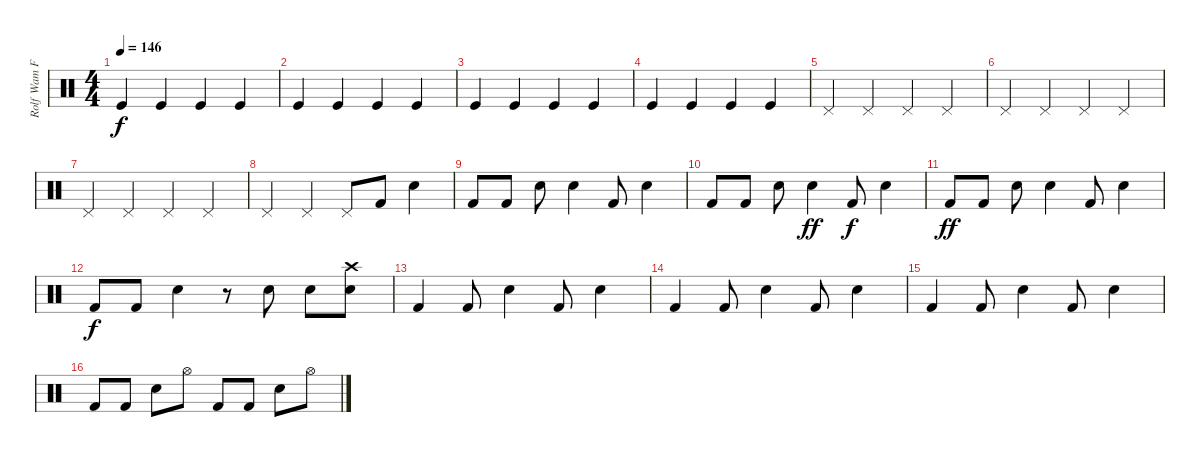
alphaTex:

\track ("Rolf Wam Fjell" "Rolf Wam F") {instrument percussion}
\staff {score}
\articulation defaults
\ts (4 4)
\tempo 146
\clef neutral
\ks c "Kick (hit)".4{dy f} "Kick (hit)".4 "Kick (hit)".4 "Kick (hit)".4
|
"Kick (hit)".4 "Kick (hit)".4 "Kick (hit)".4 "Kick (hit)".4 |
"Kick (hit)".4 "Kick (hit)".4 "Kick (hit)".4 "Kick (hit)".4 |
"Kick (hit)".4 "Kick (hit)".4 "Kick (hit)".4 "Kick (hit)".4 |
"Pedal Hi-Hat (hit)".4 "Pedal Hi-Hat (hit)".4 "Pedal Hi-Hat (hit)".4 "Pedal Hi-Hat (hit)".4 |
"Pedal Hi-Hat (hit)".4 "Pedal Hi-Hat (hit)".4 "Pedal Hi-Hat (hit)".4 "Pedal Hi-Hat (hit)".4 |
"Pedal Hi-Hat (hit)".4 "Pedal Hi-Hat (hit)".4 "Pedal Hi-Hat (hit)".4 "Pedal Hi-Hat (hit)".4 |
"Pedal Hi-Hat (hit)".4 "Pedal Hi-Hat (hit)".4 "Pedal Hi-Hat (hit)".8 "Kick (hit) 2".8 "Electric Snare (hit)".4 |
"Kick (hit) 2".8 "Kick (hit) 2".8 "Electric Snare (hit)".8 "Electric Snare (hit)".4 "Kick (hit) 2".8 "Electric Snare (hit)".4 |
"Kick (hit) 2".8 "Kick (hit) 2".8 "Electric Snare (hit)".8 "Electric Snare (hit)".4{dy ff} "Kick (hit) 2".8{dy f} "Electric Snare (hit)".4 |
"Kick (hit) 2".8{dy ff} "Kick (hit) 2".8 "Electric Snare (hit)".8 "Electric Snare (hit)".4 "Kick (hit) 2".8 "Electric Snare (hit)".4 |
"Kick (hit) 2".8{dy f} "Kick (hit) 2".8 "Electric Snare (hit)".4 r.8 "Electric Snare (hit)".8 "Electric Snare (hit)".8 ("Electric Snare (hit)" "Crash high (hit)").8 |
"Kick (hit) 2".4 "Kick (hit) 2".8 "Electric Snare (hit)".4 "Kick (hit) 2".8 "Electric Snare (hit)".4 |
"Kick (hit) 2".4 "Kick (hit) 2".8 "Electric Snare (hit)".4 "Kick (hit) 2".8 "Electric Snare (hit)".4 |
"Kick (hit) 2".4 "Kick (hit) 2".8 "Electric Snare (hit)".4 "Kick (hit) 2".8 "Electric Snare (hit)".4 |
"Kick (hit) 2".8 "Kick (hit) 2".8 "Electric Snare (hit)".8 "Hi-Hat (open)".8 "Kick (hit) 2".8 "Kick (hit) 2".8 "Electric Snare (hit)".8 "Hi-Hat (open)".8
